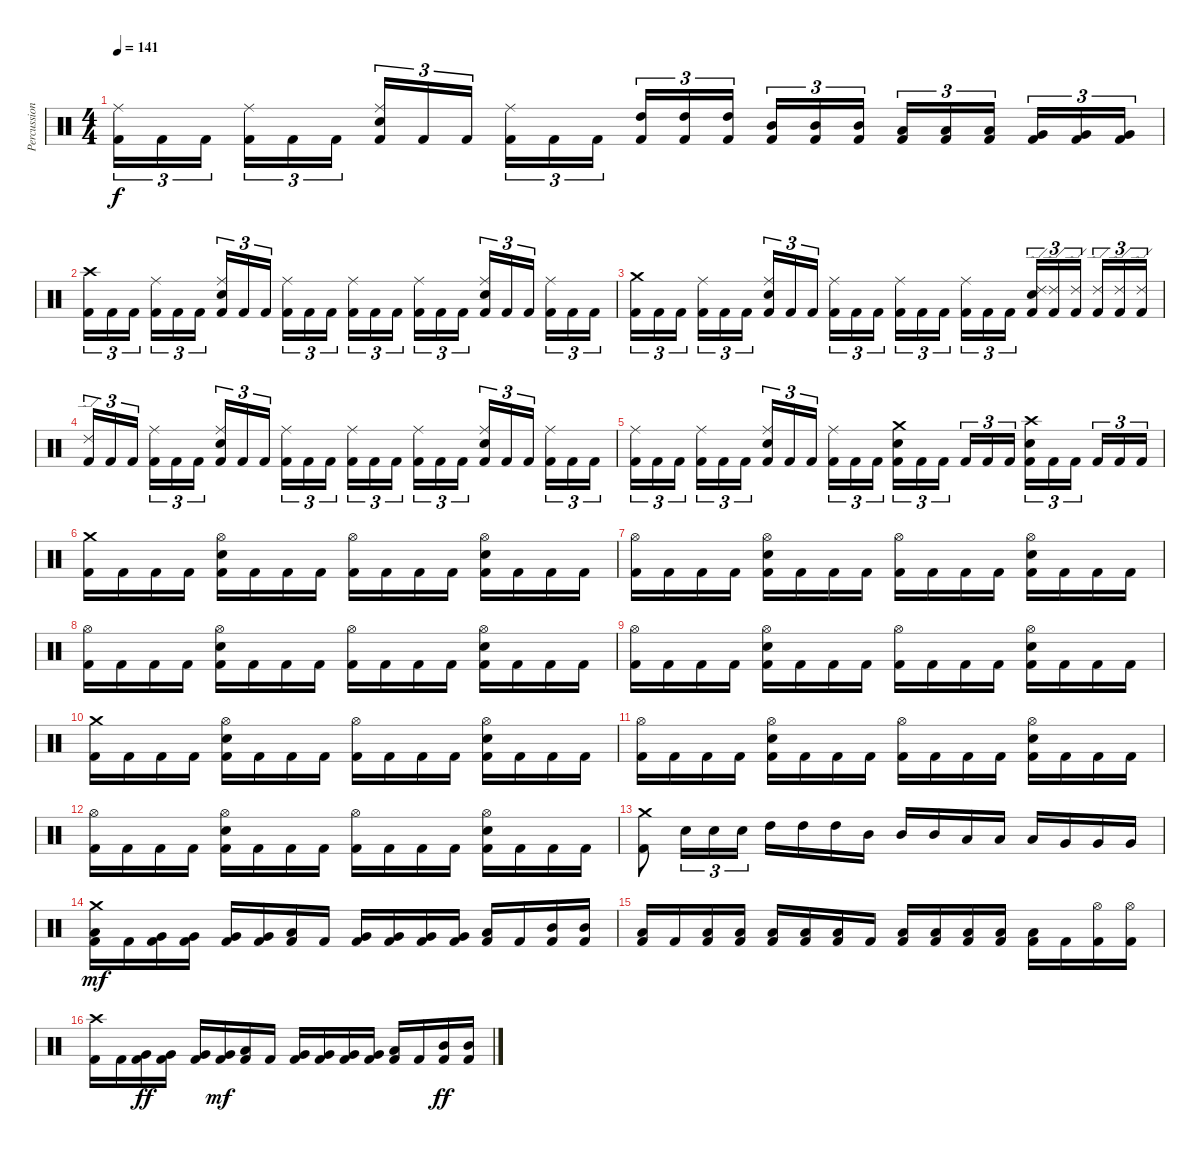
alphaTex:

\track ("Percussion" "Percussion") {instrument percussion}
\staff {score}
\articulation defaults
\ts (4 4)
\tempo 141
\clef neutral
\ks c
("Kick (hit) 2" "Ride (middle)").16{tu (3 2) dy f} "Kick (hit) 2".16{tu (3 2)} "Kick (hit) 2".16{tu (3 2)} ("Kick (hit) 2" "Ride (middle)").16{tu (3 2)} "Kick (hit) 2".16{tu (3 2)} "Kick (hit) 2".16{tu (3 2)} ("Kick (hit) 2" "Electric Snare (hit)" "Ride (middle)").16{tu (3 2)} "Kick (hit) 2".16{tu (3 2)} "Kick (hit) 2".16{tu (3 2)} ("Kick (hit) 2" "Ride (middle)").16{tu (3 2)} "Kick (hit) 2".16{tu (3 2)} "Kick (hit) 2".16{tu (3 2)} ("Kick (hit) 2" "High Tom (hit)").16{tu (3 2)} ("Kick (hit) 2" "High Tom (hit)").16{tu (3 2)} ("Kick (hit) 2" "High Tom (hit)").16{tu (3 2)} ("Kick (hit) 2" "Mid Tom (hit)").16{tu (3 2)} ("Kick (hit) 2" "Mid Tom (hit)").16{tu (3 2)} ("Kick (hit) 2" "Mid Tom (hit)").16{tu (3 2)} ("Kick (hit) 2" "Low Tom (hit)").16{tu (3 2)} ("Kick (hit) 2" "Low Tom (hit)").16{tu (3 2)} ("Kick (hit) 2" "Low Tom (hit)").16{tu (3 2)} ("Kick (hit) 2" "Very Low Tom (hit)").16{tu (3 2)} ("Kick (hit) 2" "Very Low Tom (hit)").16{tu (3 2)} ("Kick (hit) 2" "Very Low Tom (hit)").16{tu (3 2)} |
("Kick (hit) 2" "Crash high (hit)").16{tu (3 2)} "Kick (hit) 2".16{tu (3 2)} "Kick (hit) 2".16{tu (3 2)} ("Kick (hit) 2" "Ride (middle)").16{tu (3 2)} "Kick (hit) 2".16{tu (3 2)} "Kick (hit) 2".16{tu (3 2)} ("Kick (hit) 2" "Electric Snare (hit)" "Ride (middle)").16{tu (3 2)} "Kick (hit) 2".16{tu (3 2)} "Kick (hit) 2".16{tu (3 2)} ("Kick (hit) 2" "Ride (middle)").16{tu (3 2)} "Kick (hit) 2".16{tu (3 2)} "Kick (hit) 2".16{tu (3 2)} ("Kick (hit) 2" "Ride (middle)").16{tu (3 2)} "Kick (hit) 2".16{tu (3 2)} "Kick (hit) 2".16{tu (3 2)} ("Kick (hit) 2" "Ride (middle)").16{tu (3 2)} "Kick (hit) 2".16{tu (3 2)} "Kick (hit) 2".16{tu (3 2)} ("Kick (hit) 2" "Electric Snare (hit)" "Ride (middle)").16{tu (3 2)} "Kick (hit) 2".16{tu (3 2)} "Kick (hit) 2".16{tu (3 2)} ("Kick (hit) 2" "Ride (middle)").16{tu (3 2)} "Kick (hit) 2".16{tu (3 2)} "Kick (hit) 2".16{tu (3 2)} |
("Kick (hit) 2" "Crash medium (hit)").16{tu (3 2)} "Kick (hit) 2".16{tu (3 2)} "Kick (hit) 2".16{tu (3 2)} ("Kick (hit) 2" "Ride (middle)").16{tu (3 2)} "Kick (hit) 2".16{tu (3 2)} "Kick (hit) 2".16{tu (3 2)} ("Kick (hit) 2" "Electric Snare (hit)" "Ride (middle)").16{tu (3 2)} "Kick (hit) 2".16{tu (3 2)} "Kick (hit) 2".16{tu (3 2)} ("Kick (hit) 2" "Ride (middle)").16{tu (3 2)} "Kick (hit) 2".16{tu (3 2)} "Kick (hit) 2".16{tu (3 2)} ("Kick (hit) 2" "Ride (middle)").16{tu (3 2)} "Kick (hit) 2".16{tu (3 2)} "Kick (hit) 2".16{tu (3 2)} ("Kick (hit) 2" "Ride (middle)").16{tu (3 2)} "Kick (hit) 2".16{tu (3 2)} "Kick (hit) 2".16{tu (3 2)} ("Kick (hit) 2" "Electric Snare (hit)" "Ride (edge) 2").16{tu (3 2)} ("Kick (hit) 2" "Ride (edge) 2").16{tu (3 2)} ("Kick (hit) 2" "Ride (edge) 2").16{tu (3 2)} ("Kick (hit) 2" "Ride (edge) 2").16{tu (3 2)} ("Kick (hit) 2" "Ride (edge) 2").16{tu (3 2)} ("Kick (hit) 2" "Ride (edge) 2").16{tu (3 2)} |
("Kick (hit) 2" "Ride (edge) 2").16{tu (3 2)} "Kick (hit) 2".16{tu (3 2)} "Kick (hit) 2".16{tu (3 2)} ("Kick (hit) 2" "Ride (middle)").16{tu (3 2)} "Kick (hit) 2".16{tu (3 2)} "Kick (hit) 2".16{tu (3 2)} ("Kick (hit) 2" "Electric Snare (hit)" "Ride (middle)").16{tu (3 2)} "Kick (hit) 2".16{tu (3 2)} "Kick (hit) 2".16{tu (3 2)} ("Kick (hit) 2" "Ride (middle)").16{tu (3 2)} "Kick (hit) 2".16{tu (3 2)} "Kick (hit) 2".16{tu (3 2)} ("Kick (hit) 2" "Ride (middle)").16{tu (3 2)} "Kick (hit) 2".16{tu (3 2)} "Kick (hit) 2".16{tu (3 2)} ("Kick (hit) 2" "Ride (middle)").16{tu (3 2)} "Kick (hit) 2".16{tu (3 2)} "Kick (hit) 2".16{tu (3 2)} ("Kick (hit) 2" "Electric Snare (hit)" "Ride (middle)").16{tu (3 2)} "Kick (hit) 2".16{tu (3 2)} "Kick (hit) 2".16{tu (3 2)} ("Kick (hit) 2" "Ride (middle)").16{tu (3 2)} "Kick (hit) 2".16{tu (3 2)} "Kick (hit) 2".16{tu (3 2)} |
("Kick (hit) 2" "Ride (middle)").16{tu (3 2)} "Kick (hit) 2".16{tu (3 2)} "Kick (hit) 2".16{tu (3 2)} ("Kick (hit) 2" "Ride (middle)").16{tu (3 2)} "Kick (hit) 2".16{tu (3 2)} "Kick (hit) 2".16{tu (3 2)} ("Kick (hit) 2" "Electric Snare (hit)" "Ride (middle)").16{tu (3 2)} "Kick (hit) 2".16{tu (3 2)} "Kick (hit) 2".16{tu (3 2)} ("Kick (hit) 2" "Ride (middle)").16{tu (3 2)} "Kick (hit) 2".16{tu (3 2)} "Kick (hit) 2".16{tu (3 2)} ("Kick (hit) 2" "Electric Snare (hit)" "Crash medium (hit)").16{tu (3 2)} "Kick (hit) 2".16{tu (3 2)} "Kick (hit) 2".16{tu (3 2)} "Kick (hit) 2".16{tu (3 2)} "Kick (hit) 2".16{tu (3 2)} "Kick (hit) 2".16{tu (3 2)} ("Kick (hit) 2" "Electric Snare (hit)" "Crash high (hit)").16{tu (3 2)} "Kick (hit) 2".16{tu (3 2)} "Kick (hit) 2".16{tu (3 2)} "Kick (hit) 2".16{tu (3 2)} "Kick (hit) 2".16{tu (3 2)} "Kick (hit) 2".16{tu (3 2)} |
("Kick (hit) 2" "Crash medium (hit)").16 "Kick (hit) 2".16 "Kick (hit) 2".16 "Kick (hit) 2".16 ("Kick (hit) 2" "Electric Snare (hit)" "Hi-Hat (open)").16 "Kick (hit) 2".16 "Kick (hit) 2".16 "Kick (hit) 2".16 ("Kick (hit) 2" "Hi-Hat (open)").16 "Kick (hit) 2".16 "Kick (hit) 2".16 "Kick (hit) 2".16 ("Kick (hit) 2" "Electric Snare (hit)" "Hi-Hat (open)").16 "Kick (hit) 2".16 "Kick (hit) 2".16 "Kick (hit) 2".16 |
("Kick (hit) 2" "Hi-Hat (open)").16 "Kick (hit) 2".16 "Kick (hit) 2".16 "Kick (hit) 2".16 ("Kick (hit) 2" "Electric Snare (hit)" "Hi-Hat (open)").16 "Kick (hit) 2".16 "Kick (hit) 2".16 "Kick (hit) 2".16 ("Kick (hit) 2" "Hi-Hat (open)").16 "Kick (hit) 2".16 "Kick (hit) 2".16 "Kick (hit) 2".16 ("Kick (hit) 2" "Electric Snare (hit)" "Hi-Hat (open)").16 "Kick (hit) 2".16 "Kick (hit) 2".16 "Kick (hit) 2".16 |
("Kick (hit) 2" "Hi-Hat (open)").16 "Kick (hit) 2".16 "Kick (hit) 2".16 "Kick (hit) 2".16 ("Kick (hit) 2" "Electric Snare (hit)" "Hi-Hat (open)").16 "Kick (hit) 2".16 "Kick (hit) 2".16 "Kick (hit) 2".16 ("Kick (hit) 2" "Hi-Hat (open)").16 "Kick (hit) 2".16 "Kick (hit) 2".16 "Kick (hit) 2".16 ("Kick (hit) 2" "Electric Snare (hit)" "Hi-Hat (open)").16 "Kick (hit) 2".16 "Kick (hit) 2".16 "Kick (hit) 2".16 |
("Kick (hit) 2" "Hi-Hat (open)").16 "Kick (hit) 2".16 "Kick (hit) 2".16 "Kick (hit) 2".16 ("Kick (hit) 2" "Electric Snare (hit)" "Hi-Hat (open)").16 "Kick (hit) 2".16 "Kick (hit) 2".16 "Kick (hit) 2".16 ("Kick (hit) 2" "Hi-Hat (open)").16 "Kick (hit) 2".16 "Kick (hit) 2".16 "Kick (hit) 2".16 ("Kick (hit) 2" "Electric Snare (hit)" "Hi-Hat (open)").16 "Kick (hit) 2".16 "Kick (hit) 2".16 "Kick (hit) 2".16 |
("Kick (hit) 2" "Crash medium (hit)").16 "Kick (hit) 2".16 "Kick (hit) 2".16 "Kick (hit) 2".16 ("Kick (hit) 2" "Electric Snare (hit)" "Hi-Hat (open)").16 "Kick (hit) 2".16 "Kick (hit) 2".16 "Kick (hit) 2".16 ("Kick (hit) 2" "Hi-Hat (open)").16 "Kick (hit) 2".16 "Kick (hit) 2".16 "Kick (hit) 2".16 ("Kick (hit) 2" "Electric Snare (hit)" "Hi-Hat (open)").16 "Kick (hit) 2".16 "Kick (hit) 2".16 "Kick (hit) 2".16 |
("Kick (hit) 2" "Hi-Hat (open)").16 "Kick (hit) 2".16 "Kick (hit) 2".16 "Kick (hit) 2".16 ("Kick (hit) 2" "Electric Snare (hit)" "Hi-Hat (open)").16 "Kick (hit) 2".16 "Kick (hit) 2".16 "Kick (hit) 2".16 ("Kick (hit) 2" "Hi-Hat (open)").16 "Kick (hit) 2".16 "Kick (hit) 2".16 "Kick (hit) 2".16 ("Kick (hit) 2" "Electric Snare (hit)" "Hi-Hat (open)").16 "Kick (hit) 2".16 "Kick (hit) 2".16 "Kick (hit) 2".16 |
("Kick (hit) 2" "Hi-Hat (open)").16 "Kick (hit) 2".16 "Kick (hit) 2".16 "Kick (hit) 2".16 ("Kick (hit) 2" "Electric Snare (hit)" "Hi-Hat (open)").16 "Kick (hit) 2".16 "Kick (hit) 2".16 "Kick (hit) 2".16 ("Kick (hit) 2" "Hi-Hat (open)").16 "Kick (hit) 2".16 "Kick (hit) 2".16 "Kick (hit) 2".16 ("Kick (hit) 2" "Electric Snare (hit)" "Hi-Hat (open)").16 "Kick (hit) 2".16 "Kick (hit) 2".16 "Kick (hit) 2".16 |
("Kick (hit) 2" "Crash medium (hit)").8 "Electric Snare (hit)".16{tu (3 2)} "Electric Snare (hit)".16{tu (3 2)} "Electric Snare (hit)".16{tu (3 2)} "High Tom (hit)".16 "High Tom (hit)".16 "High Tom (hit)".16 "Mid Tom (hit)".16 "Mid Tom (hit)".16 "Mid Tom (hit)".16 "Low Tom (hit)".16 "Low Tom (hit)".16 "Low Tom (hit)".16 "Very Low Tom (hit)".16 "Very Low Tom (hit)".16 "Very Low Tom (hit)".16 |
("Kick (hit) 2" "Low Tom (hit)" "Crash medium (hit)").16{dy mf} "Kick (hit) 2".16 ("Kick (hit) 2" "Very Low Tom (hit)").16 ("Kick (hit) 2" "Very Low Tom (hit)").16 ("Kick (hit) 2" "Very Low Tom (hit)").16 ("Kick (hit) 2" "Very Low Tom (hit)").16 ("Kick (hit) 2" "Low Tom (hit)").16 "Kick (hit) 2".16 ("Kick (hit) 2" "Very Low Tom (hit)").16 ("Kick (hit) 2" "Very Low Tom (hit)").16 ("Kick (hit) 2" "Very Low Tom (hit)").16 ("Kick (hit) 2" "Very Low Tom (hit)").16 ("Kick (hit) 2" "Low Tom (hit)").16 "Kick (hit) 2".16 ("Kick (hit) 2" "Mid Tom (hit)").16 ("Kick (hit) 2" "Mid Tom (hit)").16 |
("Kick (hit) 2" "Low Tom (hit)").16 "Kick (hit) 2".16 ("Kick (hit) 2" "Low Tom (hit)").16 ("Kick (hit) 2" "Low Tom (hit)").16 ("Kick (hit) 2" "Low Tom (hit)").16 ("Kick (hit) 2" "Low Tom (hit)").16 ("Kick (hit) 2" "Low Tom (hit)").16 "Kick (hit) 2".16 ("Kick (hit) 2" "Low Tom (hit)").16 ("Kick (hit) 2" "Low Tom (hit)").16 ("Kick (hit) 2" "Low Tom (hit)").16 ("Kick (hit) 2" "Low Tom (hit)").16 ("Kick (hit) 2" "Low Tom (hit)").16 "Kick (hit) 2".16 ("Kick (hit) 2" "Hi-Hat (open)").16 ("Kick (hit) 2" "Hi-Hat (open)").16 |
("Kick (hit) 2" "Crash high (hit)").16 "Kick (hit) 2".16 ("Kick (hit) 2" "Very Low Tom (hit)").16{dy ff} ("Kick (hit) 2" "Very Low Tom (hit)").16 ("Kick (hit) 2" "Very Low Tom (hit)").16 ("Kick (hit) 2" "Very Low Tom (hit)").16{dy mf} ("Kick (hit) 2" "Low Tom (hit)").16 "Kick (hit) 2".16 ("Kick (hit) 2" "Very Low Tom (hit)").16 ("Kick (hit) 2" "Very Low Tom (hit)").16 ("Kick (hit) 2" "Very Low Tom (hit)").16 ("Kick (hit) 2" "Very Low Tom (hit)").16 ("Kick (hit) 2" "Low Tom (hit)").16 "Kick (hit) 2".16 ("Kick (hit) 2" "Mid Tom (hit)").16{dy ff} ("Kick (hit) 2" "Mid Tom (hit)").16
